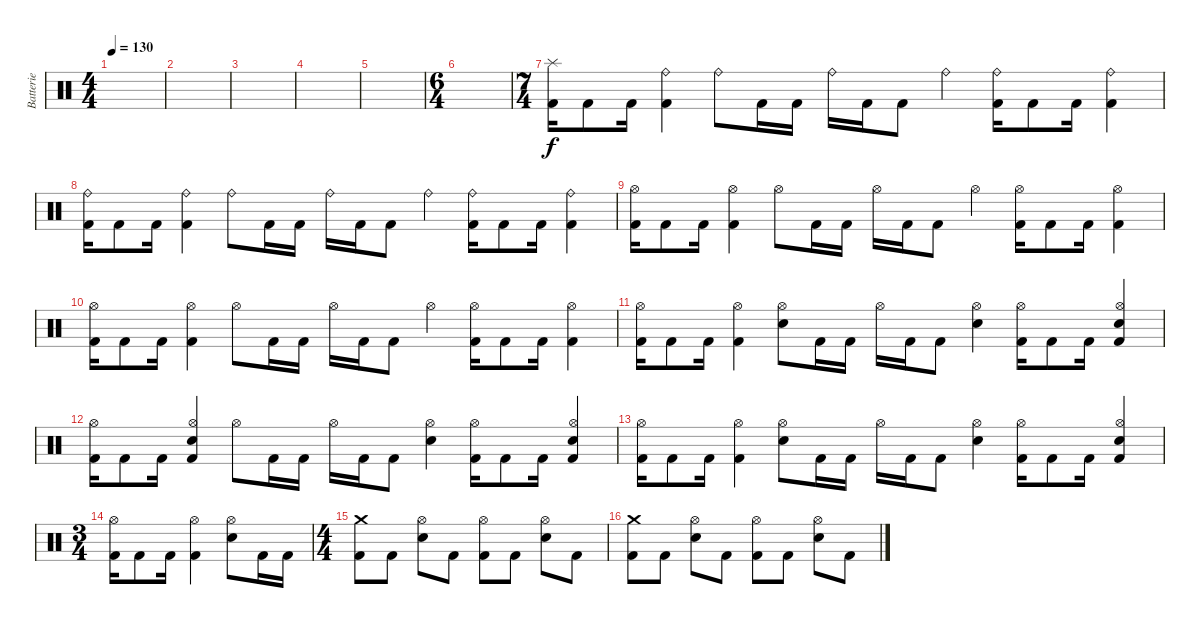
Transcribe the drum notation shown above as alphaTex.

\track ("Batterie" "Batterie") {instrument percussion}
\staff {score}
\articulation defaults
\ts (4 4)
\tempo 130
\clef neutral
\ks c
|
|
|
|
|
\ts (6 4)
|
\ts (7 4)
("Splash (hit)" "Kick (hit) 2").16 "Kick (hit) 2".8 "Kick (hit) 2".16 ("Ride (bell)" "Kick (hit) 2").4 "Ride (bell)".8 "Kick (hit) 2".16 "Kick (hit) 2".16 "Ride (bell)".16 "Kick (hit) 2".16 "Kick (hit) 2".8 "Ride (bell)".4 ("Ride (bell)" "Kick (hit) 2").16 "Kick (hit) 2".8 "Kick (hit) 2".16 ("Ride (bell)" "Kick (hit) 2").4 |
("Ride (bell)" "Kick (hit) 2").16 "Kick (hit) 2".8 "Kick (hit) 2".16 ("Ride (bell)" "Kick (hit) 2").4 "Ride (bell)".8 "Kick (hit) 2".16 "Kick (hit) 2".16 "Ride (bell)".16 "Kick (hit) 2".16 "Kick (hit) 2".8 "Ride (bell)".4 ("Ride (bell)" "Kick (hit) 2").16 "Kick (hit) 2".8 "Kick (hit) 2".16 ("Ride (bell)" "Kick (hit) 2").4 |
("Hi-Hat (open)" "Kick (hit) 2").16 "Kick (hit) 2".8 "Kick (hit) 2".16 ("Hi-Hat (open)" "Kick (hit) 2").4 "Hi-Hat (open)".8 "Kick (hit) 2".16 "Kick (hit) 2".16 "Hi-Hat (open)".16 "Kick (hit) 2".16 "Kick (hit) 2".8 "Hi-Hat (open)".4 ("Hi-Hat (open)" "Kick (hit) 2").16 "Kick (hit) 2".8 "Kick (hit) 2".16 ("Hi-Hat (open)" "Kick (hit) 2").4 |
("Hi-Hat (open)" "Kick (hit) 2").16 "Kick (hit) 2".8 "Kick (hit) 2".16 ("Hi-Hat (open)" "Kick (hit) 2").4 "Hi-Hat (open)".8 "Kick (hit) 2".16 "Kick (hit) 2".16 "Hi-Hat (open)".16 "Kick (hit) 2".16 "Kick (hit) 2".8 "Hi-Hat (open)".4 ("Hi-Hat (open)" "Kick (hit) 2").16 "Kick (hit) 2".8 "Kick (hit) 2".16 ("Hi-Hat (open)" "Kick (hit) 2").4 |
("Hi-Hat (open)" "Kick (hit) 2").16 "Kick (hit) 2".8 "Kick (hit) 2".16 ("Hi-Hat (open)" "Kick (hit) 2").4 ("Hi-Hat (open)" "Snare (hit) 2").8 "Kick (hit) 2".16 "Kick (hit) 2".16 "Hi-Hat (open)".16 "Kick (hit) 2".16 "Kick (hit) 2".8 ("Hi-Hat (open)" "Snare (hit) 2").4 ("Hi-Hat (open)" "Kick (hit) 2").16 "Kick (hit) 2".8 "Kick (hit) 2".16 ("Hi-Hat (open)" "Snare (hit) 2" "Kick (hit) 2").4 |
("Hi-Hat (open)" "Kick (hit) 2").16 "Kick (hit) 2".8 "Kick (hit) 2".16 ("Hi-Hat (open)" "Snare (hit) 2" "Kick (hit) 2").4 "Hi-Hat (open)".8 "Kick (hit) 2".16 "Kick (hit) 2".16 "Hi-Hat (open)".16 "Kick (hit) 2".16 "Kick (hit) 2".8 ("Hi-Hat (open)" "Snare (hit) 2").4 ("Hi-Hat (open)" "Kick (hit) 2").16 "Kick (hit) 2".8 "Kick (hit) 2".16 ("Hi-Hat (open)" "Snare (hit) 2" "Kick (hit) 2").4 |
("Hi-Hat (open)" "Kick (hit) 2").16 "Kick (hit) 2".8 "Kick (hit) 2".16 ("Hi-Hat (open)" "Kick (hit) 2").4 ("Hi-Hat (open)" "Snare (hit) 2").8 "Kick (hit) 2".16 "Kick (hit) 2".16 "Hi-Hat (open)".16 "Kick (hit) 2".16 "Kick (hit) 2".8 ("Hi-Hat (open)" "Snare (hit) 2").4 ("Hi-Hat (open)" "Kick (hit) 2").16 "Kick (hit) 2".8 "Kick (hit) 2".16 ("Hi-Hat (open)" "Snare (hit) 2" "Kick (hit) 2").4 |
\ts (3 4)
("Hi-Hat (open)" "Kick (hit) 2").16 "Kick (hit) 2".8 "Kick (hit) 2".16 ("Hi-Hat (open)" "Kick (hit) 2").4 ("Hi-Hat (open)" "Snare (hit) 2").8 "Kick (hit) 2".16 "Kick (hit) 2".16 |
\ts (4 4)
("Crash medium (hit)" "Kick (hit) 2").8 "Kick (hit) 2".8 ("Hi-Hat (open)" "Snare (hit) 2").8 "Kick (hit) 2".8 ("Hi-Hat (open)" "Kick (hit) 2").8 "Kick (hit) 2".8 ("Hi-Hat (open)" "Snare (hit) 2").8 "Kick (hit) 2".8 |
("Crash medium (hit)" "Kick (hit) 2").8 "Kick (hit) 2".8 ("Hi-Hat (open)" "Snare (hit) 2").8 "Kick (hit) 2".8 ("Hi-Hat (open)" "Kick (hit) 2").8 "Kick (hit) 2".8 ("Hi-Hat (open)" "Snare (hit) 2").8 "Kick (hit) 2".8
